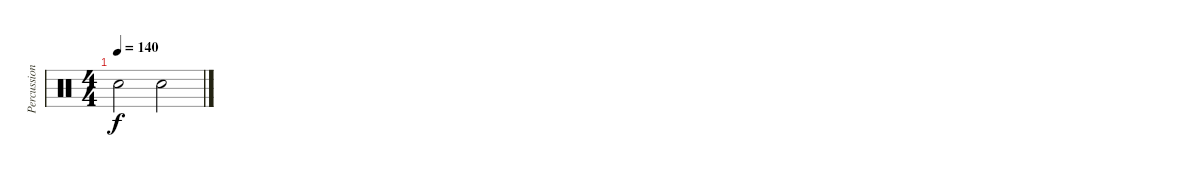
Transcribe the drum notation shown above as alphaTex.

\track ("Percussions" "Percussion") {instrument percussion}
\staff {score}
\articulation defaults
\ts (4 4)
\tempo 140
\clef neutral
\ks c "Hand Clap (hit)".2{dy f} "Hand Clap (hit)".2
